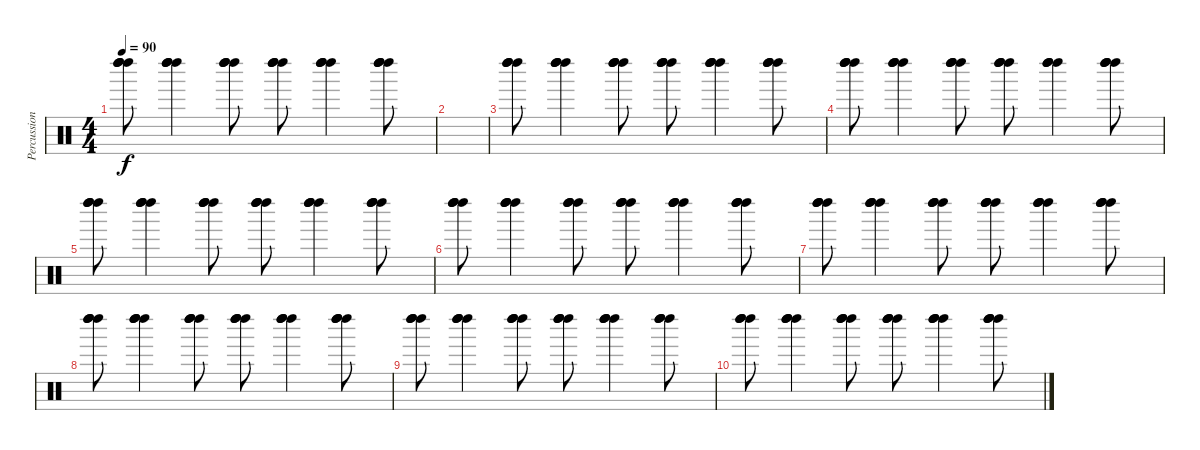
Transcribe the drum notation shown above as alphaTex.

\track ("Percussions" "Percussion") {instrument percussion}
\staff {score}
\articulation defaults
\ts (4 4)
\tempo 90
\clef neutral
\ks c
("Left Maraca (hit)" "Left Maraca (hit)" "Left Maraca (hit)" "Left Maraca (hit)").8{dy f} ("Left Maraca (hit)" "Left Maraca (hit)" "Left Maraca (hit)" "Left Maraca (hit)").4 ("Left Maraca (hit)" "Left Maraca (hit)" "Left Maraca (hit)" "Left Maraca (hit)").8 ("Left Maraca (hit)" "Left Maraca (hit)" "Left Maraca (hit)" "Left Maraca (hit)").8 ("Left Maraca (hit)" "Left Maraca (hit)" "Left Maraca (hit)" "Left Maraca (hit)").4 ("Left Maraca (hit)" "Left Maraca (hit)" "Left Maraca (hit)" "Left Maraca (hit)").8 |
|
("Left Maraca (hit)" "Left Maraca (hit)" "Left Maraca (hit)" "Left Maraca (hit)").8 ("Left Maraca (hit)" "Left Maraca (hit)" "Left Maraca (hit)" "Left Maraca (hit)").4 ("Left Maraca (hit)" "Left Maraca (hit)" "Left Maraca (hit)" "Left Maraca (hit)").8 ("Left Maraca (hit)" "Left Maraca (hit)" "Left Maraca (hit)" "Left Maraca (hit)").8 ("Left Maraca (hit)" "Left Maraca (hit)" "Left Maraca (hit)" "Left Maraca (hit)").4 ("Left Maraca (hit)" "Left Maraca (hit)" "Left Maraca (hit)" "Left Maraca (hit)").8 |
("Left Maraca (hit)" "Left Maraca (hit)" "Left Maraca (hit)" "Left Maraca (hit)").8 ("Left Maraca (hit)" "Left Maraca (hit)" "Left Maraca (hit)" "Left Maraca (hit)").4 ("Left Maraca (hit)" "Left Maraca (hit)" "Left Maraca (hit)" "Left Maraca (hit)").8 ("Left Maraca (hit)" "Left Maraca (hit)" "Left Maraca (hit)" "Left Maraca (hit)").8 ("Left Maraca (hit)" "Left Maraca (hit)" "Left Maraca (hit)" "Left Maraca (hit)").4 ("Left Maraca (hit)" "Left Maraca (hit)" "Left Maraca (hit)" "Left Maraca (hit)").8 |
("Left Maraca (hit)" "Left Maraca (hit)" "Left Maraca (hit)" "Left Maraca (hit)").8 ("Left Maraca (hit)" "Left Maraca (hit)" "Left Maraca (hit)" "Left Maraca (hit)").4 ("Left Maraca (hit)" "Left Maraca (hit)" "Left Maraca (hit)" "Left Maraca (hit)").8 ("Left Maraca (hit)" "Left Maraca (hit)" "Left Maraca (hit)" "Left Maraca (hit)").8 ("Left Maraca (hit)" "Left Maraca (hit)" "Left Maraca (hit)" "Left Maraca (hit)").4 ("Left Maraca (hit)" "Left Maraca (hit)" "Left Maraca (hit)" "Left Maraca (hit)").8 |
("Left Maraca (hit)" "Left Maraca (hit)" "Left Maraca (hit)" "Left Maraca (hit)").8 ("Left Maraca (hit)" "Left Maraca (hit)" "Left Maraca (hit)" "Left Maraca (hit)").4 ("Left Maraca (hit)" "Left Maraca (hit)" "Left Maraca (hit)" "Left Maraca (hit)").8 ("Left Maraca (hit)" "Left Maraca (hit)" "Left Maraca (hit)" "Left Maraca (hit)").8 ("Left Maraca (hit)" "Left Maraca (hit)" "Left Maraca (hit)" "Left Maraca (hit)").4 ("Left Maraca (hit)" "Left Maraca (hit)" "Left Maraca (hit)" "Left Maraca (hit)").8 |
("Left Maraca (hit)" "Left Maraca (hit)" "Left Maraca (hit)" "Left Maraca (hit)").8 ("Left Maraca (hit)" "Left Maraca (hit)" "Left Maraca (hit)" "Left Maraca (hit)").4 ("Left Maraca (hit)" "Left Maraca (hit)" "Left Maraca (hit)" "Left Maraca (hit)").8 ("Left Maraca (hit)" "Left Maraca (hit)" "Left Maraca (hit)" "Left Maraca (hit)").8 ("Left Maraca (hit)" "Left Maraca (hit)" "Left Maraca (hit)" "Left Maraca (hit)").4 ("Left Maraca (hit)" "Left Maraca (hit)" "Left Maraca (hit)" "Left Maraca (hit)").8 |
("Left Maraca (hit)" "Left Maraca (hit)" "Left Maraca (hit)" "Left Maraca (hit)").8 ("Left Maraca (hit)" "Left Maraca (hit)" "Left Maraca (hit)" "Left Maraca (hit)").4 ("Left Maraca (hit)" "Left Maraca (hit)" "Left Maraca (hit)" "Left Maraca (hit)").8 ("Left Maraca (hit)" "Left Maraca (hit)" "Left Maraca (hit)" "Left Maraca (hit)").8 ("Left Maraca (hit)" "Left Maraca (hit)" "Left Maraca (hit)" "Left Maraca (hit)").4 ("Left Maraca (hit)" "Left Maraca (hit)" "Left Maraca (hit)" "Left Maraca (hit)").8 |
("Left Maraca (hit)" "Left Maraca (hit)" "Left Maraca (hit)" "Left Maraca (hit)").8 ("Left Maraca (hit)" "Left Maraca (hit)" "Left Maraca (hit)" "Left Maraca (hit)").4 ("Left Maraca (hit)" "Left Maraca (hit)" "Left Maraca (hit)" "Left Maraca (hit)").8 ("Left Maraca (hit)" "Left Maraca (hit)" "Left Maraca (hit)" "Left Maraca (hit)").8 ("Left Maraca (hit)" "Left Maraca (hit)" "Left Maraca (hit)" "Left Maraca (hit)").4 ("Left Maraca (hit)" "Left Maraca (hit)" "Left Maraca (hit)" "Left Maraca (hit)").8 |
("Left Maraca (hit)" "Left Maraca (hit)" "Left Maraca (hit)" "Left Maraca (hit)").8 ("Left Maraca (hit)" "Left Maraca (hit)" "Left Maraca (hit)" "Left Maraca (hit)").4 ("Left Maraca (hit)" "Left Maraca (hit)" "Left Maraca (hit)" "Left Maraca (hit)").8 ("Left Maraca (hit)" "Left Maraca (hit)" "Left Maraca (hit)" "Left Maraca (hit)").8 ("Left Maraca (hit)" "Left Maraca (hit)" "Left Maraca (hit)" "Left Maraca (hit)").4 ("Left Maraca (hit)" "Left Maraca (hit)" "Left Maraca (hit)" "Left Maraca (hit)").8
